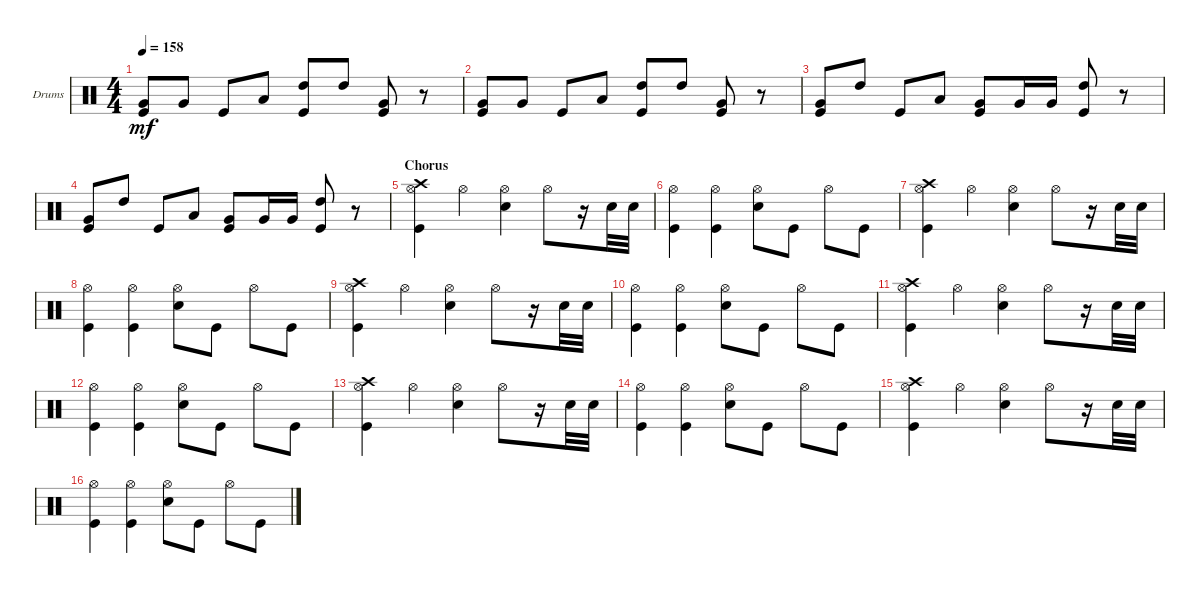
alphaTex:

\defaultSystemsLayout 4
\bracketExtendMode groupsimilarinstruments
\firstSystemTrackNameOrientation horizontal
\otherSystemsTrackNameOrientation horizontal
\track ("Drumkit" "Drums") {instrument percussion}
\staff {score}
\articulation defaults
\ts (4 4)
\tempo 158
\clef neutral
\ks c
("Very Low Tom (hit)" "Kick (hit)").8{dy mf} "Very Low Tom (hit)".8 "Kick (hit)".8 "Low Tom (hit)".8 ("High Tom (hit)" "Kick (hit)").8 "High Tom (hit)".8 ("Very Low Tom (hit)" "Kick (hit)").8 r.8 |
("Very Low Tom (hit)" "Kick (hit)").8 "Very Low Tom (hit)".8 "Kick (hit)".8 "Low Tom (hit)".8 ("High Tom (hit)" "Kick (hit)").8 "High Tom (hit)".8 ("Very Low Tom (hit)" "Kick (hit)").8 r.8 |
("Kick (hit)" "Very Low Tom (hit)").8 "High Tom (hit)".8 "Kick (hit)".8 "Low Tom (hit)".8 ("Very Low Tom (hit)" "Kick (hit)").8 "Very Low Tom (hit)".16 "Very Low Tom (hit)".16 ("High Tom (hit)" "Kick (hit)").8 r.8 |
("Kick (hit)" "Very Low Tom (hit)").8 "High Tom (hit)".8 "Kick (hit)".8 "Low Tom (hit)".8 ("Very Low Tom (hit)" "Kick (hit)").8 "Very Low Tom (hit)".16 "Very Low Tom (hit)".16 ("High Tom (hit)" "Kick (hit)").8 r.8 |
\section ("" "Chorus")
("Crash high (hit)" "Hi-Hat (open)" "Kick (hit)").4 "Hi-Hat (open)".4 ("Hi-Hat (open)" "Snare (hit) 2").4 "Hi-Hat (open)".8 r.16 "Snare (hit) 2".32 "Snare (hit) 2".32 |
("Hi-Hat (open)" "Kick (hit)").4 ("Hi-Hat (open)" "Kick (hit)").4 ("Hi-Hat (open)" "Snare (hit) 2").8 "Kick (hit)".8 "Hi-Hat (open)".8 "Kick (hit)".8 |
("Crash high (hit)" "Hi-Hat (open)" "Kick (hit)").4 "Hi-Hat (open)".4 ("Hi-Hat (open)" "Snare (hit) 2").4 "Hi-Hat (open)".8 r.16 "Snare (hit) 2".32 "Snare (hit) 2".32 |
("Hi-Hat (open)" "Kick (hit)").4 ("Hi-Hat (open)" "Kick (hit)").4 ("Hi-Hat (open)" "Snare (hit) 2").8 "Kick (hit)".8 "Hi-Hat (open)".8 "Kick (hit)".8 |
("Crash high (hit)" "Hi-Hat (open)" "Kick (hit)").4 "Hi-Hat (open)".4 ("Hi-Hat (open)" "Snare (hit) 2").4 "Hi-Hat (open)".8 r.16 "Snare (hit) 2".32 "Snare (hit) 2".32 |
("Hi-Hat (open)" "Kick (hit)").4 ("Hi-Hat (open)" "Kick (hit)").4 ("Hi-Hat (open)" "Snare (hit) 2").8 "Kick (hit)".8 "Hi-Hat (open)".8 "Kick (hit)".8 |
("Crash high (hit)" "Hi-Hat (open)" "Kick (hit)").4 "Hi-Hat (open)".4 ("Hi-Hat (open)" "Snare (hit) 2").4 "Hi-Hat (open)".8 r.16 "Snare (hit) 2".32 "Snare (hit) 2".32 |
("Hi-Hat (open)" "Kick (hit)").4 ("Hi-Hat (open)" "Kick (hit)").4 ("Hi-Hat (open)" "Snare (hit) 2").8 "Kick (hit)".8 "Hi-Hat (open)".8 "Kick (hit)".8 |
("Crash high (hit)" "Hi-Hat (open)" "Kick (hit)").4 "Hi-Hat (open)".4 ("Hi-Hat (open)" "Snare (hit) 2").4 "Hi-Hat (open)".8 r.16 "Snare (hit) 2".32 "Snare (hit) 2".32 |
("Hi-Hat (open)" "Kick (hit)").4 ("Hi-Hat (open)" "Kick (hit)").4 ("Hi-Hat (open)" "Snare (hit) 2").8 "Kick (hit)".8 "Hi-Hat (open)".8 "Kick (hit)".8 |
("Crash high (hit)" "Hi-Hat (open)" "Kick (hit)").4 "Hi-Hat (open)".4 ("Hi-Hat (open)" "Snare (hit) 2").4 "Hi-Hat (open)".8 r.16 "Snare (hit) 2".32 "Snare (hit) 2".32 |
("Hi-Hat (open)" "Kick (hit)").4 ("Hi-Hat (open)" "Kick (hit)").4 ("Hi-Hat (open)" "Snare (hit) 2").8 "Kick (hit)".8 "Hi-Hat (open)".8 "Kick (hit)".8
